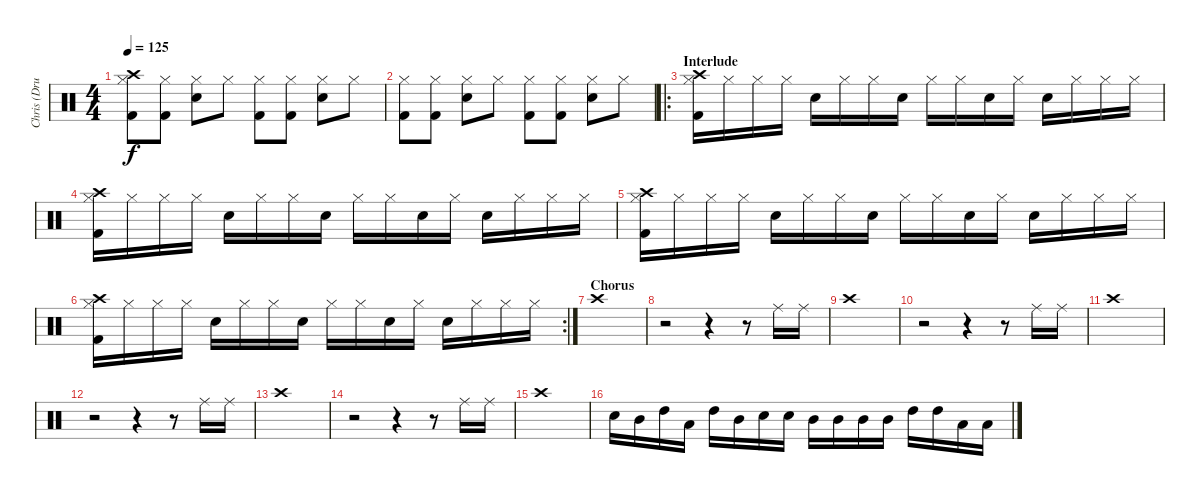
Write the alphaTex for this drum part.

\track ("Chris (Drums)" "Chris (Dru") {instrument percussion}
\staff {score}
\articulation defaults
\ts (4 4)
\tempo 125
\clef neutral
\ks c
("Crash high (hit)" "Hi-Hat (closed)" "Kick (hit) 2").8{dy f} ("Hi-Hat (closed)" "Kick (hit) 2").8 ("Hi-Hat (closed)" "Snare (hit) 2").8 "Hi-Hat (closed)".8 ("Hi-Hat (closed)" "Kick (hit) 2").8 ("Hi-Hat (closed)" "Kick (hit) 2").8 ("Hi-Hat (closed)" "Snare (hit) 2").8 "Hi-Hat (closed)".8 |
("Hi-Hat (closed)" "Kick (hit) 2").8 ("Hi-Hat (closed)" "Kick (hit) 2").8 ("Hi-Hat (closed)" "Snare (hit) 2").8 "Hi-Hat (closed)".8 ("Hi-Hat (closed)" "Kick (hit) 2").8 ("Hi-Hat (closed)" "Kick (hit) 2").8 ("Hi-Hat (closed)" "Snare (hit) 2").8 "Hi-Hat (closed)".8 |
\ro
\section ("" "Interlude")
("Crash high (hit)" "Hi-Hat (closed)" "Kick (hit) 2").16 "Hi-Hat (closed)".16 "Hi-Hat (closed)".16 "Hi-Hat (closed)".16 "Snare (hit) 2".16 "Hi-Hat (closed)".16 "Hi-Hat (closed)".16 "Snare (hit) 2".16 "Hi-Hat (closed)".16 "Hi-Hat (closed)".16 "Snare (hit) 2".16 "Hi-Hat (closed)".16 "Snare (hit) 2".16 "Hi-Hat (closed)".16 "Hi-Hat (closed)".16 "Hi-Hat (closed)".16 |
("Crash high (hit)" "Hi-Hat (closed)" "Kick (hit) 2").16 "Hi-Hat (closed)".16 "Hi-Hat (closed)".16 "Hi-Hat (closed)".16 "Snare (hit) 2".16 "Hi-Hat (closed)".16 "Hi-Hat (closed)".16 "Snare (hit) 2".16 "Hi-Hat (closed)".16 "Hi-Hat (closed)".16 "Snare (hit) 2".16 "Hi-Hat (closed)".16 "Snare (hit) 2".16 "Hi-Hat (closed)".16 "Hi-Hat (closed)".16 "Hi-Hat (closed)".16 |
("Crash high (hit)" "Hi-Hat (closed)" "Kick (hit) 2").16 "Hi-Hat (closed)".16 "Hi-Hat (closed)".16 "Hi-Hat (closed)".16 "Snare (hit) 2".16 "Hi-Hat (closed)".16 "Hi-Hat (closed)".16 "Snare (hit) 2".16 "Hi-Hat (closed)".16 "Hi-Hat (closed)".16 "Snare (hit) 2".16 "Hi-Hat (closed)".16 "Snare (hit) 2".16 "Hi-Hat (closed)".16 "Hi-Hat (closed)".16 "Hi-Hat (closed)".16 |
\rc 2
("Crash high (hit)" "Hi-Hat (closed)" "Kick (hit) 2").16 "Hi-Hat (closed)".16 "Hi-Hat (closed)".16 "Hi-Hat (closed)".16 "Snare (hit) 2".16 "Hi-Hat (closed)".16 "Hi-Hat (closed)".16 "Snare (hit) 2".16 "Hi-Hat (closed)".16 "Hi-Hat (closed)".16 "Snare (hit) 2".16 "Hi-Hat (closed)".16 "Snare (hit) 2".16 "Hi-Hat (closed)".16 "Hi-Hat (closed)".16 "Hi-Hat (closed)".16 |
\section ("" "Chorus")
"Crash high (hit)".1 |
r.2 r.4 r.8 "Ride (middle)".16 "Ride (middle)".16 |
\section ("" "")
"Crash high (hit)".1 |
r.2 r.4 r.8 "Ride (middle)".16 "Ride (middle)".16 |
"Crash high (hit)".1 |
r.2 r.4 r.8 "Ride (middle)".16 "Ride (middle)".16 |
"Crash high (hit)".1 |
r.2 r.4 r.8 "Ride (middle)".16 "Ride (middle)".16 |
"Crash high (hit)".1 |
"Snare (hit) 2".16 "Mid Tom (hit)".16 "High Tom (hit)".16 "Low Tom (hit)".16 "High Tom (hit)".16 "Mid Tom (hit)".16 "Snare (hit) 2".16 "Snare (hit) 2".16 "Mid Tom (hit)".16 "Mid Tom (hit)".16 "Mid Tom (hit)".16 "Mid Tom (hit)".16 "High Tom (hit)".16 "High Tom (hit)".16 "Low Tom (hit)".16 "Low Tom (hit)".16
